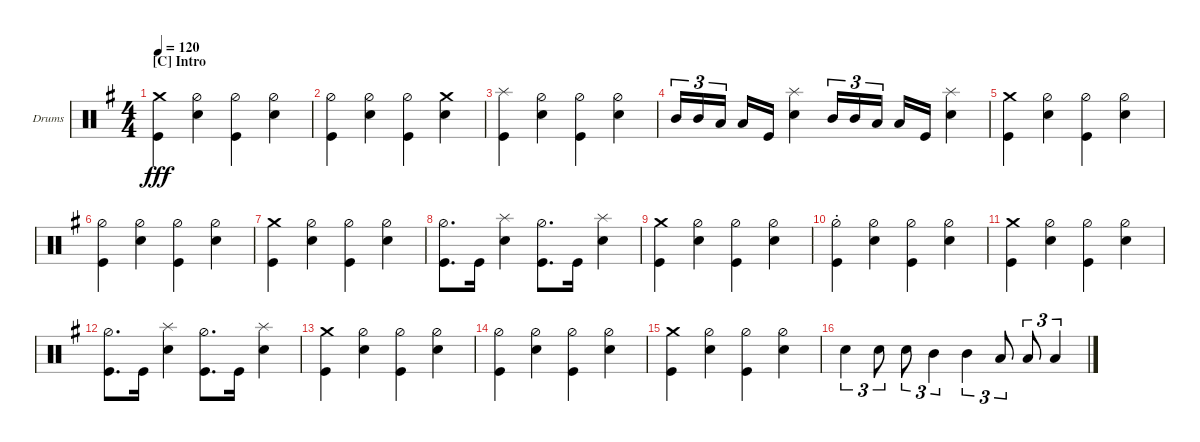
\defaultSystemsLayout 4
\bracketExtendMode groupsimilarinstruments
\firstSystemTrackNameOrientation horizontal
\otherSystemsTrackNameOrientation horizontal
\track ("Drumkit" "Drums") {multiBarRest instrument percussion}
\staff {score}
\articulation defaults
\ts (4 4)
\section ("C" "Intro")
\tempo 120
\clef neutral
\ks g
("Crash medium (hit)" "Kick (hit)").4{dy fff} ("Hi-Hat (half)" "Snare (hit) 2").4 ("Hi-Hat (half)" "Kick (hit)").4 ("Hi-Hat (half)" "Snare (hit) 2").4 |
("Hi-Hat (half)" "Kick (hit)").4 ("Hi-Hat (half)" "Snare (hit) 2").4 ("Hi-Hat (half)" "Kick (hit)").4 ("Crash medium (hit)" "Snare (hit) 2").4 |
("Splash (hit)" "Kick (hit)").4 ("Hi-Hat (half)" "Snare (hit) 2").4 ("Hi-Hat (half)" "Kick (hit)").4 ("Hi-Hat (half)" "Snare (hit) 2").4 |
"Mid Tom (hit)".16{tu (3 2)} "Mid Tom (hit)".16{tu (3 2)} "Low Tom (hit)".16{tu (3 2)} "Low Tom (hit)".16 "Kick (hit)".16 ("Splash (hit)" "Snare (hit) 2").4 "Mid Tom (hit)".16{tu (3 2)} "Mid Tom (hit)".16{tu (3 2)} "Low Tom (hit)".16{tu (3 2)} "Low Tom (hit)".16 "Kick (hit)".16 ("Splash (hit)" "Snare (hit) 2").4 |
("Crash medium (hit)" "Kick (hit)").4 ("Hi-Hat (half)" "Snare (hit) 2").4 ("Hi-Hat (half)" "Kick (hit)").4 ("Hi-Hat (half)" "Snare (hit) 2").4 |
("Hi-Hat (half)" "Kick (hit)").4 ("Hi-Hat (half)" "Snare (hit) 2").4 ("Hi-Hat (half)" "Kick (hit)").4 ("Hi-Hat (half)" "Snare (hit) 2").4 |
("Crash medium (hit)" "Kick (hit)").4 ("Hi-Hat (half)" "Snare (hit) 2").4 ("Hi-Hat (half)" "Kick (hit)").4 ("Hi-Hat (half)" "Snare (hit) 2").4 |
("Hi-Hat (half)" "Kick (hit)").8{d} "Kick (hit)".16 ("Splash (hit)" "Snare (hit) 2").4 ("Hi-Hat (half)" "Kick (hit)").8{d} "Kick (hit)".16 ("Splash (hit)" "Snare (hit) 2").4 |
("Crash medium (hit)" "Kick (hit)").4 ("Hi-Hat (half)" "Snare (hit) 2").4 ("Hi-Hat (half)" "Kick (hit)").4 ("Hi-Hat (half)" "Snare (hit) 2").4 |
("Hi-Hat (half)" "Kick (hit)"{st}).4 ("Hi-Hat (half)" "Snare (hit) 2").4 ("Hi-Hat (half)" "Kick (hit)").4 ("Hi-Hat (half)" "Snare (hit) 2").4 |
("Kick (hit)" "Crash medium (hit)").4 ("Hi-Hat (half)" "Snare (hit) 2").4 ("Hi-Hat (half)" "Kick (hit)").4 ("Hi-Hat (half)" "Snare (hit) 2").4 |
("Hi-Hat (half)" "Kick (hit)").8{d} "Kick (hit)".16 ("Splash (hit)" "Snare (hit) 2").4 ("Hi-Hat (half)" "Kick (hit)").8{d} "Kick (hit)".16 ("Splash (hit)" "Snare (hit) 2").4 |
("Crash medium (hit)" "Kick (hit)").4 ("Hi-Hat (half)" "Snare (hit) 2").4 ("Hi-Hat (half)" "Kick (hit)").4 ("Hi-Hat (half)" "Snare (hit) 2").4 |
("Hi-Hat (half)" "Kick (hit)").4 ("Hi-Hat (half)" "Snare (hit) 2").4 ("Hi-Hat (half)" "Kick (hit)").4 ("Hi-Hat (half)" "Snare (hit) 2").4 |
("Crash medium (hit)" "Kick (hit)").4 ("Hi-Hat (half)" "Snare (hit) 2").4 ("Hi-Hat (half)" "Kick (hit)").4 ("Hi-Hat (half)" "Snare (hit) 2").4 |
"Snare (hit) 2".4{tu (3 2)} "Snare (hit) 2".8{tu (3 2)} "Snare (hit) 2".8{tu (3 2)} "Mid Tom (hit)".4{tu (3 2)} "Mid Tom (hit)".4{tu (3 2)} "Low Tom (hit)".8{tu (3 2)} "Low Tom (hit)".8{tu (3 2)} "Low Tom (hit)".4{tu (3 2)}
